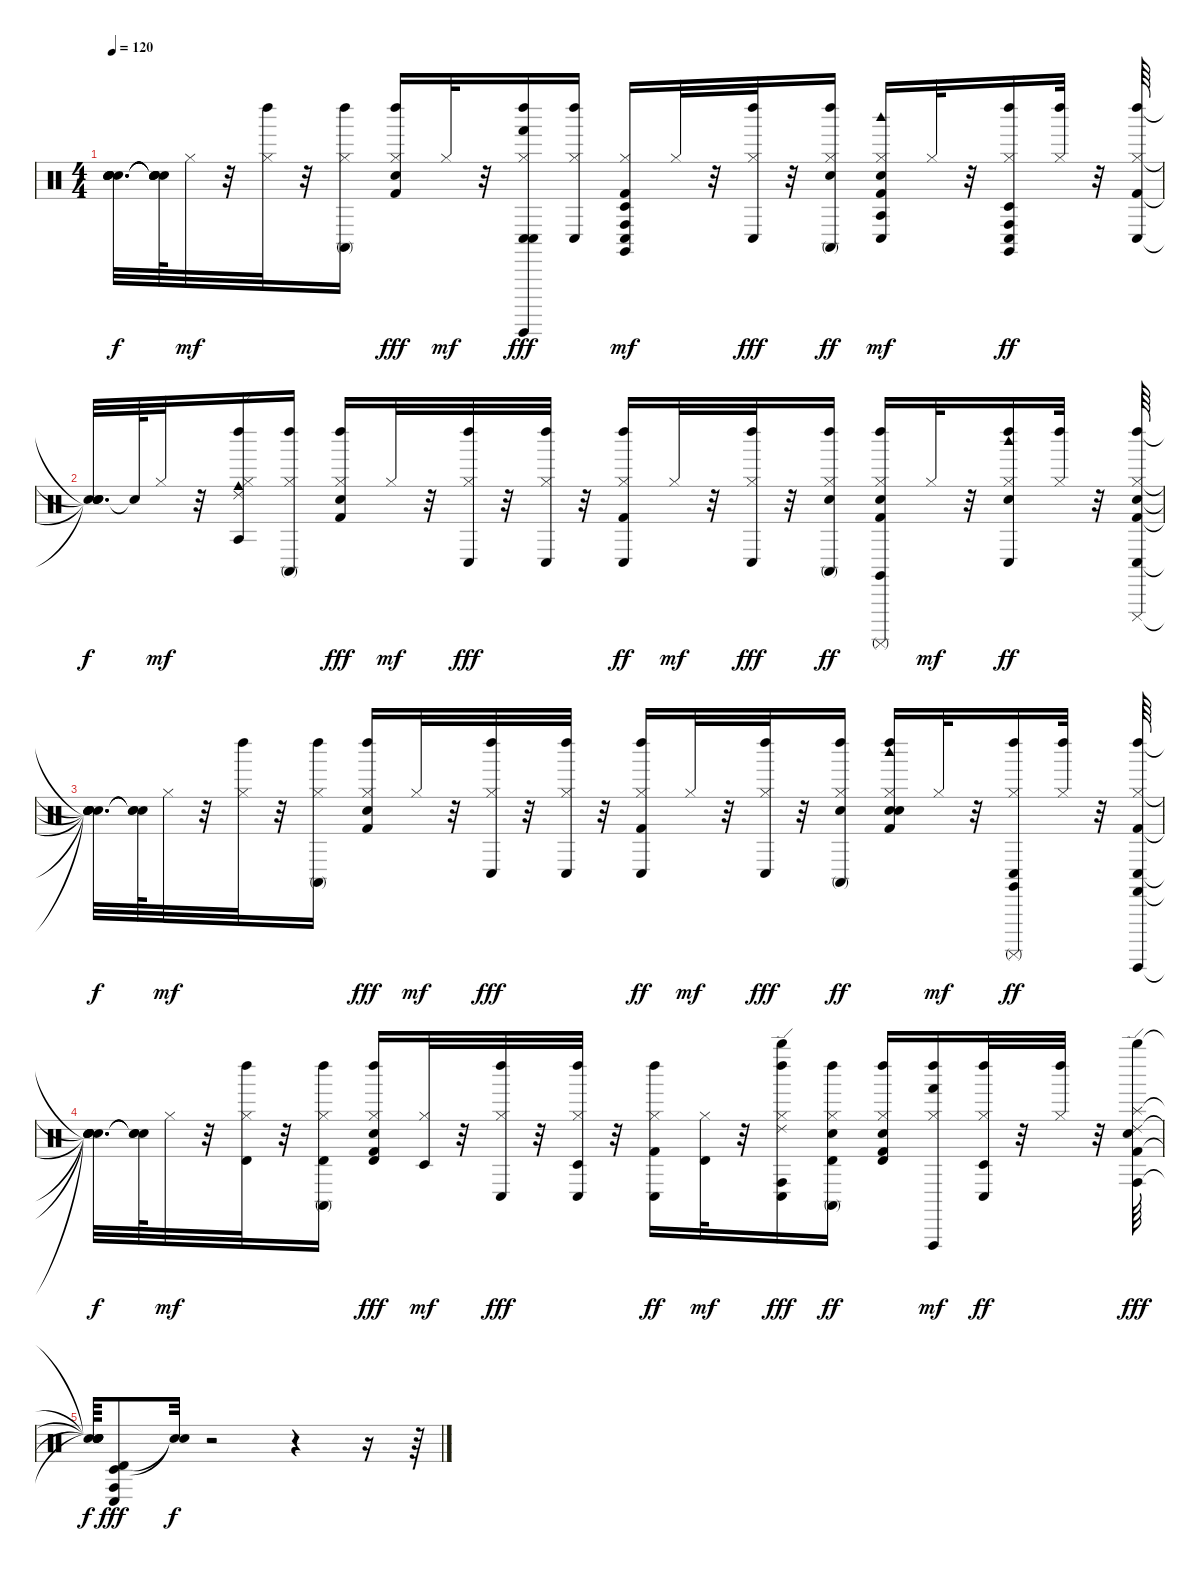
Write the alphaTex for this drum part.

\track "" {instrument percussion}
\staff {score}
\articulation defaults
\ts (4 4)
\tempo 120
\clef neutral
\ks c
("Snare (hit)"{t} "Snare (hit)"{t} "Snare (hit)"{t} "Snare (hit)"{t} "Snare (hit)"{t} "Snare (hit)"{t}).32{d dy f} ("Snare (hit)"{t} "Snare (hit)"{t} "Snare (hit)"{t} "Snare (hit)"{t} "Snare (hit)"{t}).64 "Hi-Hat (closed)".32{dy mf} r.32 ("Hi-Hat (closed)" "Left Maraca (hit)").32 r.32 ("Conga high (mute)" "Hi-Hat (closed)" "Left Maraca (hit)").16 ("Kick (hit) 2" "Electric Snare (hit)" "Hi-Hat (closed)" "Left Maraca (hit)").16{dy fff} "Hi-Hat (closed)".32{dy mf} r.32 ("Hand (hit)" "Conga low (hit)" "Guiro (hit)" "Conga low (hit)" "Hi-Hat (closed)" "Left Maraca (hit)").16{dy fff} ("Conga low (hit)" "Hi-Hat (closed)" "Left Maraca (hit)").16 ("Conga high (hit)" "Timbale low (hit)" "Claves (hit)" "Kick (hit) 2" "Conga low (hit)" "Hi-Hat (closed)").16{dy mf} "Hi-Hat (closed)".32 r.32 ("Conga low (hit)" "Hi-Hat (closed)" "Left Maraca (hit)").32{dy fff} r.32 ("Electric Snare (hit)" "Conga high (mute)" "Hi-Hat (closed)" "Left Maraca (hit)").16{dy ff} ("Conga low (hit)" "Agogo tow (hit)" "Woodblock high (hit)" "Kick (hit) 2" "Electric Snare (hit)" "Hi-Hat (closed)").16{dy mf} "Hi-Hat (closed)".32 r.32 ("Conga high (hit)" "Timbale low (hit)" "Claves (hit)" "Conga low (hit)" "Hi-Hat (closed)" "Left Maraca (hit)").16{dy ff} ("Hi-Hat (closed)" "Left Maraca (hit)").32 r.32 ("Kick (hit) 2" "Conga low (hit)" "Hi-Hat (closed)" "Left Maraca (hit)").64 |
("Snare (hit)"{t} "Snare (hit)"{t} "Snare (hit)"{t} "Snare (hit)"{t}).32{d dy f} "Snare (hit)"{t}.64 "Hi-Hat (closed)".32{dy mf} r.32 ("Cowbell medium (hit)" "Ride (edge) 2" "Agogo tow (hit)" "Hi-Hat (closed)" "Left Maraca (hit)").16 ("Conga high (mute)" "Hi-Hat (closed)" "Left Maraca (hit)").16 ("Kick (hit) 2" "Electric Snare (hit)" "Hi-Hat (closed)" "Left Maraca (hit)").16{dy fff} "Hi-Hat (closed)".32{dy mf} r.32 ("Conga low (hit)" "Hi-Hat (closed)" "Left Maraca (hit)").32{dy fff} r.32 ("Conga low (hit)" "Hi-Hat (closed)" "Left Maraca (hit)").32 r.32 ("Kick (hit) 2" "Conga low (hit)" "Hi-Hat (closed)" "Left Maraca (hit)").16{dy ff} "Hi-Hat (closed)".32{dy mf} r.32 ("Conga low (hit)" "Hi-Hat (closed)" "Left Maraca (hit)").32{dy fff} r.32 ("Electric Snare (hit)" "Conga high (mute)" "Hi-Hat (closed)" "Left Maraca (hit)").16{dy ff} ("Claves (hit)" "Surdo (mute)" "Kick (hit) 2" "Electric Snare (hit)" "Hi-Hat (closed)" "Left Maraca (hit)").16 "Hi-Hat (closed)".32{dy mf} r.32 ("Woodblock high (hit)" "Snare (hit)" "Conga low (hit)" "Hi-Hat (closed)" "Left Maraca (hit)").16{dy ff} ("Hi-Hat (closed)" "Left Maraca (hit)").32 r.32 ("Cuica (mute)" "Snare (hit)" "Kick (hit) 2" "Conga low (hit)" "Hi-Hat (closed)" "Left Maraca (hit)").64 |
("Snare (hit)"{t} "Snare (hit)"{t} "Snare (hit)"{t} "Snare (hit)"{t} "Snare (hit)"{t} "Snare (hit)"{t}).32{d dy f} ("Snare (hit)"{t} "Snare (hit)"{t} "Snare (hit)"{t}).64 "Hi-Hat (closed)".32{dy mf} r.32 ("Hi-Hat (closed)" "Left Maraca (hit)").32 r.32 ("Conga high (mute)" "Hi-Hat (closed)" "Left Maraca (hit)").16 ("Kick (hit) 2" "Electric Snare (hit)" "Hi-Hat (closed)" "Left Maraca (hit)").16{dy fff} "Hi-Hat (closed)".32{dy mf} r.32 ("Conga low (hit)" "Hi-Hat (closed)" "Left Maraca (hit)").32{dy fff} r.32 ("Conga low (hit)" "Hi-Hat (closed)" "Left Maraca (hit)").32 r.32 ("Kick (hit) 2" "Conga low (hit)" "Hi-Hat (closed)" "Left Maraca (hit)").16{dy ff} "Hi-Hat (closed)".32{dy mf} r.32 ("Conga low (hit)" "Hi-Hat (closed)" "Left Maraca (hit)").32{dy fff} r.32 ("Electric Snare (hit)" "Conga high (mute)" "Hi-Hat (closed)" "Left Maraca (hit)").16{dy ff} ("Woodblock high (hit)" "Snare (hit)" "Kick (hit) 2" "Electric Snare (hit)" "Hi-Hat (closed)" "Left Maraca (hit)").16 "Hi-Hat (closed)".32{dy mf} r.32 ("Claves (hit)" "Surdo (mute)" "Conga low (hit)" "Hi-Hat (closed)" "Left Maraca (hit)").16{dy ff} ("Hi-Hat (closed)" "Left Maraca (hit)").32 r.32 ("Guiro (hit)" "Castanets (hit)" "Kick (hit) 2" "Conga low (hit)" "Hi-Hat (closed)" "Left Maraca (hit)").64 |
("Snare (hit)"{t} "Snare (hit)"{t} "Snare (hit)"{t} "Snare (hit)"{t} "Snare (hit)"{t} "Snare (hit)"{t}).32{d dy f} ("Snare (hit)"{t} "Snare (hit)"{t} "Snare (hit)"{t}).64 "Hi-Hat (closed)".32{dy mf} r.32 ("Timbale high (hit)" "Hi-Hat (closed)" "Left Maraca (hit)").32 r.32 ("Timbale high (hit)" "Conga high (mute)" "Hi-Hat (closed)" "Left Maraca (hit)").16 ("Kick (hit) 2" "Electric Snare (hit)" "Timbale high (hit)" "Hi-Hat (closed)" "Left Maraca (hit)").16{dy fff} ("Timbale low (hit)" "Hi-Hat (closed)").32{dy mf} r.32 ("Conga low (hit)" "Hi-Hat (closed)" "Left Maraca (hit)").32{dy fff} r.32 ("Timbale low (hit)" "Conga low (hit)" "Hi-Hat (closed)" "Left Maraca (hit)").32 r.32 ("Kick (hit) 2" "Conga low (hit)" "Hi-Hat (closed)" "Left Maraca (hit)").16{dy ff} ("Timbale high (hit)" "Hi-Hat (closed)").32{dy mf} r.32 ("Whistle high (hit)" "Conga high (hit)" "Ride (edge) 2" "Conga low (hit)" "Hi-Hat (closed)" "Left Maraca (hit)").16{dy fff} ("Electric Snare (hit)" "Timbale high (hit)" "Conga high (mute)" "Hi-Hat (closed)" "Left Maraca (hit)").16{dy ff} ("Kick (hit) 2" "Electric Snare (hit)" "Timbale high (hit)" "Hi-Hat (closed)" "Left Maraca (hit)").16 ("Left Maraca (hit)" "Hand (hit)" "Vibraslap (hit)" "Hi-Hat (closed)").16{dy mf} ("Timbale low (hit)" "Conga low (hit)" "Hi-Hat (closed)" "Left Maraca (hit)").32{dy ff} r.32 ("Hi-Hat (closed)" "Left Maraca (hit)").32 r.32 ("Whistle high (hit)" "Conga high (hit)" "Ride (edge) 2" "Kick (hit) 2" "Splash (hit)" "Electric Snare (hit)").64{dy fff} |
("Snare (hit)"{t} "Snare (hit)"{t} "Snare (hit)"{t} "Snare (hit)"{t} "Snare (hit)"{t}).64{dy f} ("Timbale low (hit)" "Timbale high (hit)" "Conga low (hit)" "Conga high (hit)").8{dy fff} ("Snare (hit)"{t} "Snare (hit)"{t}).32{dy f} r.2 r.4 r.16 r.64
